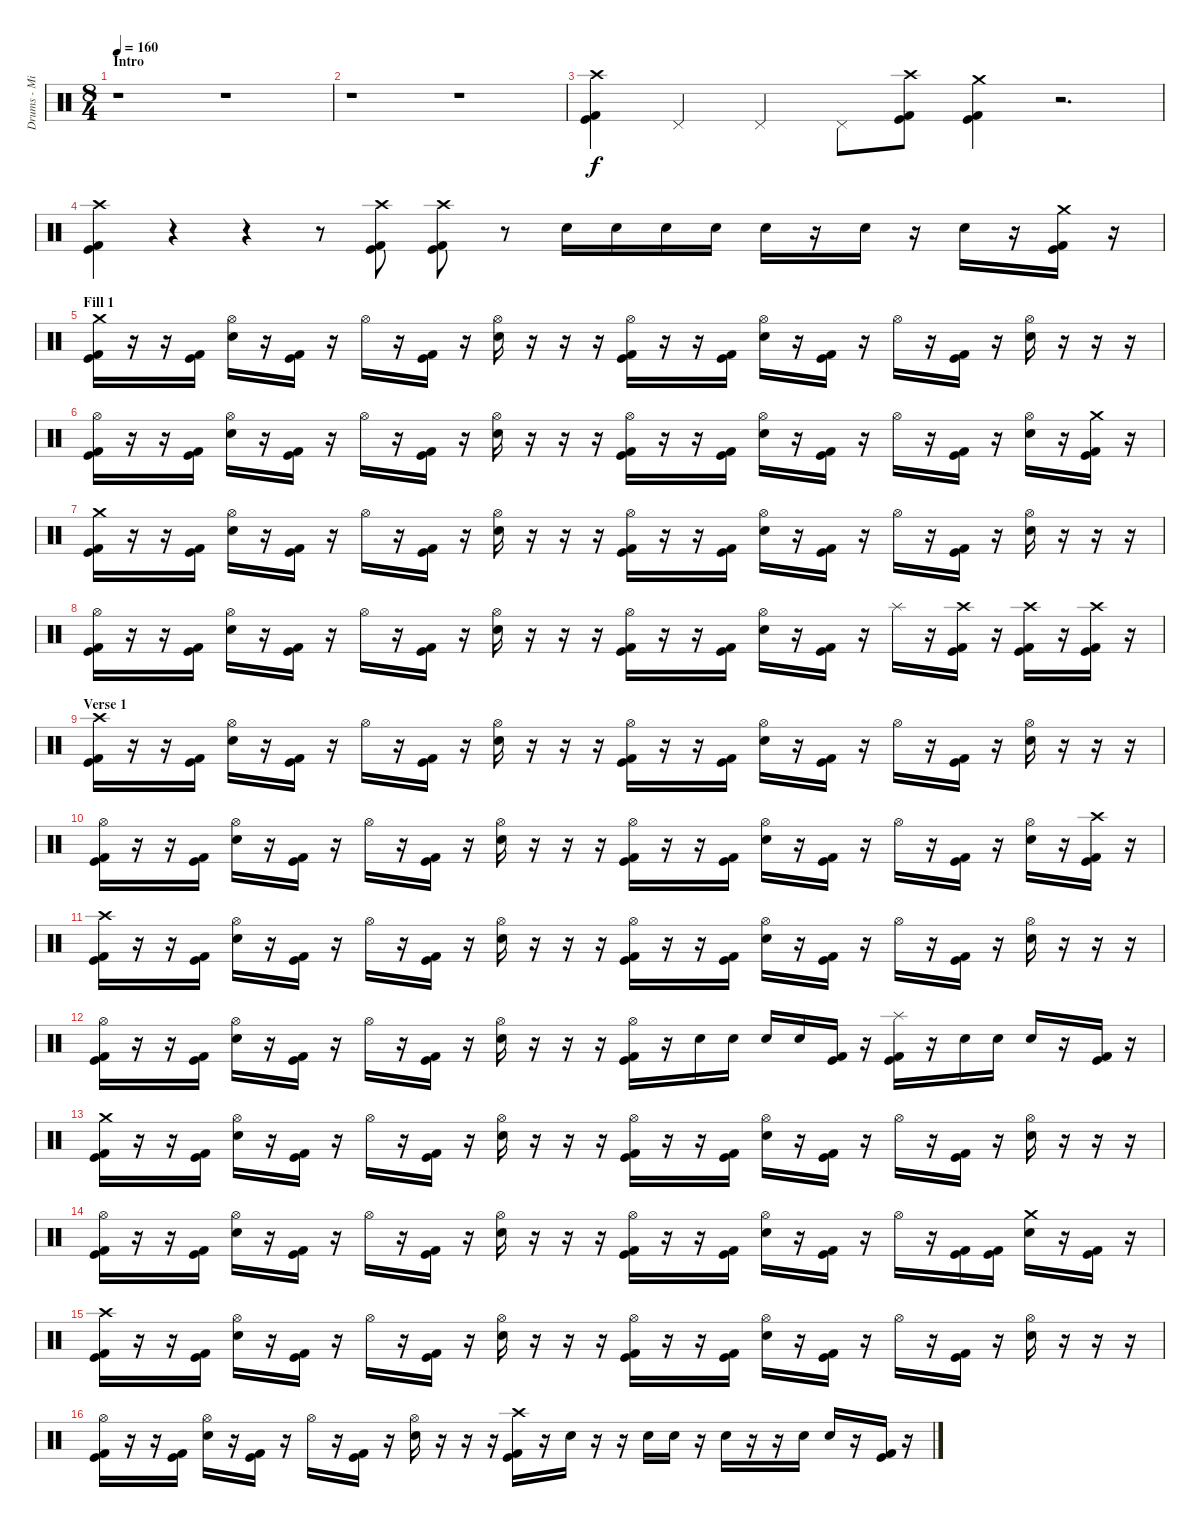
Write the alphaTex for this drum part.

\track ("Drums - Mikkey Dee" "Drums - Mi") {instrument percussion}
\staff {score}
\articulation defaults
\ts (8 4)
\section ("" "Intro")
\tempo 160
\clef neutral
\ks c
r.1{dy f} r.1 |
r.1 r.1 |
("Crash high (hit)" "Kick (hit) 2" "Kick (hit)").4 "Pedal Hi-Hat (hit)".4 "Pedal Hi-Hat (hit)".4 "Pedal Hi-Hat (hit)".8 ("Crash high (hit)" "Kick (hit)" "Kick (hit) 2").8 ("Crash medium (hit)" "Kick (hit) 2" "Kick (hit)").4 r.2{d} |
("Crash high (hit)" "Kick (hit) 2" "Kick (hit)").4 r.4 r.4 r.8 ("Crash high (hit)" "Kick (hit) 2" "Kick (hit)").8 ("Crash high (hit)" "Kick (hit) 2" "Kick (hit)").8 r.8 "Electric Snare (hit)".16 "Electric Snare (hit)".16 "Electric Snare (hit)".16 "Electric Snare (hit)".16 "Electric Snare (hit)".16 r.16 "Electric Snare (hit)".16 r.16 "Electric Snare (hit)".16 r.16 ("Crash medium (hit)" "Kick (hit) 2" "Kick (hit)").16 r.16 |
\section ("" "Fill 1")
("Crash medium (hit)" "Kick (hit) 2" "Kick (hit)").16 r.16 r.16 ("Kick (hit) 2" "Kick (hit)").16 ("Hi-Hat (open)" "Electric Snare (hit)").16 r.16 ("Kick (hit) 2" "Kick (hit)").16 r.16 "Hi-Hat (open)".16 r.16 ("Kick (hit) 2" "Kick (hit)").16 r.16 ("Hi-Hat (open)" "Electric Snare (hit)").16 r.16 r.16 r.16 ("Hi-Hat (open)" "Kick (hit) 2" "Kick (hit)").16 r.16 r.16 ("Kick (hit) 2" "Kick (hit)").16 ("Hi-Hat (open)" "Electric Snare (hit)").16 r.16 ("Kick (hit) 2" "Kick (hit)").16 r.16 "Hi-Hat (open)".16 r.16 ("Kick (hit) 2" "Kick (hit)").16 r.16 ("Hi-Hat (open)" "Electric Snare (hit)").16 r.16 r.16 r.16 |
("Hi-Hat (open)" "Kick (hit) 2" "Kick (hit)").16 r.16 r.16 ("Kick (hit) 2" "Kick (hit)").16 ("Hi-Hat (open)" "Electric Snare (hit)").16 r.16 ("Kick (hit) 2" "Kick (hit)").16 r.16 "Hi-Hat (open)".16 r.16 ("Kick (hit) 2" "Kick (hit)").16 r.16 ("Hi-Hat (open)" "Electric Snare (hit)").16 r.16 r.16 r.16 ("Hi-Hat (open)" "Kick (hit) 2" "Kick (hit)").16 r.16 r.16 ("Kick (hit) 2" "Kick (hit)").16 ("Hi-Hat (open)" "Electric Snare (hit)").16 r.16 ("Kick (hit) 2" "Kick (hit)").16 r.16 "Hi-Hat (open)".16 r.16 ("Kick (hit) 2" "Kick (hit)").16 r.16 ("Hi-Hat (open)" "Electric Snare (hit)").16 r.16 ("Crash medium (hit)" "Kick (hit) 2" "Kick (hit)").16 r.16 |
("Crash medium (hit)" "Kick (hit) 2" "Kick (hit)").16 r.16 r.16 ("Kick (hit) 2" "Kick (hit)").16 ("Hi-Hat (open)" "Electric Snare (hit)").16 r.16 ("Kick (hit) 2" "Kick (hit)").16 r.16 "Hi-Hat (open)".16 r.16 ("Kick (hit) 2" "Kick (hit)").16 r.16 ("Hi-Hat (open)" "Electric Snare (hit)").16 r.16 r.16 r.16 ("Hi-Hat (open)" "Kick (hit) 2" "Kick (hit)").16 r.16 r.16 ("Kick (hit) 2" "Kick (hit)").16 ("Hi-Hat (open)" "Electric Snare (hit)").16 r.16 ("Kick (hit) 2" "Kick (hit)").16 r.16 "Hi-Hat (open)".16 r.16 ("Kick (hit) 2" "Kick (hit)").16 r.16 ("Hi-Hat (open)" "Electric Snare (hit)").16 r.16 r.16 r.16 |
("Hi-Hat (open)" "Kick (hit) 2" "Kick (hit)").16 r.16 r.16 ("Kick (hit) 2" "Kick (hit)").16 ("Hi-Hat (open)" "Electric Snare (hit)").16 r.16 ("Kick (hit) 2" "Kick (hit)").16 r.16 "Hi-Hat (open)".16 r.16 ("Kick (hit) 2" "Kick (hit)").16 r.16 ("Hi-Hat (open)" "Electric Snare (hit)").16 r.16 r.16 r.16 ("Hi-Hat (open)" "Kick (hit) 2" "Kick (hit)").16 r.16 r.16 ("Kick (hit) 2" "Kick (hit)").16 ("Hi-Hat (open)" "Electric Snare (hit)").16 r.16 ("Kick (hit) 2" "Kick (hit)").16 r.16 "Splash (hit)".16 r.16 ("Crash high (hit)" "Kick (hit)" "Kick (hit) 2").16 r.16 ("Crash high (hit)" "Kick (hit)" "Kick (hit) 2").16 r.16 ("Crash high (hit)" "Kick (hit)" "Kick (hit) 2").16 r.16 |
\section ("" "Verse 1")
("Crash high (hit)" "Kick (hit) 2" "Kick (hit)").16 r.16 r.16 ("Kick (hit) 2" "Kick (hit)").16 ("Hi-Hat (open)" "Electric Snare (hit)").16 r.16 ("Kick (hit) 2" "Kick (hit)").16 r.16 "Hi-Hat (open)".16 r.16 ("Kick (hit) 2" "Kick (hit)").16 r.16 ("Hi-Hat (open)" "Electric Snare (hit)").16 r.16 r.16 r.16 ("Hi-Hat (open)" "Kick (hit) 2" "Kick (hit)").16 r.16 r.16 ("Kick (hit) 2" "Kick (hit)").16 ("Hi-Hat (open)" "Electric Snare (hit)").16 r.16 ("Kick (hit) 2" "Kick (hit)").16 r.16 "Hi-Hat (open)".16 r.16 ("Kick (hit) 2" "Kick (hit)").16 r.16 ("Hi-Hat (open)" "Electric Snare (hit)").16 r.16 r.16 r.16 |
("Hi-Hat (open)" "Kick (hit) 2" "Kick (hit)").16 r.16 r.16 ("Kick (hit) 2" "Kick (hit)").16 ("Hi-Hat (open)" "Electric Snare (hit)").16 r.16 ("Kick (hit) 2" "Kick (hit)").16 r.16 "Hi-Hat (open)".16 r.16 ("Kick (hit) 2" "Kick (hit)").16 r.16 ("Hi-Hat (open)" "Electric Snare (hit)").16 r.16 r.16 r.16 ("Hi-Hat (open)" "Kick (hit) 2" "Kick (hit)").16 r.16 r.16 ("Kick (hit) 2" "Kick (hit)").16 ("Hi-Hat (open)" "Electric Snare (hit)").16 r.16 ("Kick (hit) 2" "Kick (hit)").16 r.16 "Hi-Hat (open)".16 r.16 ("Kick (hit) 2" "Kick (hit)").16 r.16 ("Hi-Hat (open)" "Electric Snare (hit)").16 r.16 ("Crash high (hit)" "Kick (hit)" "Kick (hit) 2").16 r.16 |
("Crash high (hit)" "Kick (hit) 2" "Kick (hit)").16 r.16 r.16 ("Kick (hit) 2" "Kick (hit)").16 ("Hi-Hat (open)" "Electric Snare (hit)").16 r.16 ("Kick (hit) 2" "Kick (hit)").16 r.16 "Hi-Hat (open)".16 r.16 ("Kick (hit) 2" "Kick (hit)").16 r.16 ("Hi-Hat (open)" "Electric Snare (hit)").16 r.16 r.16 r.16 ("Hi-Hat (open)" "Kick (hit) 2" "Kick (hit)").16 r.16 r.16 ("Kick (hit) 2" "Kick (hit)").16 ("Hi-Hat (open)" "Electric Snare (hit)").16 r.16 ("Kick (hit) 2" "Kick (hit)").16 r.16 "Hi-Hat (open)".16 r.16 ("Kick (hit) 2" "Kick (hit)").16 r.16 ("Hi-Hat (open)" "Electric Snare (hit)").16 r.16 r.16 r.16 |
("Hi-Hat (open)" "Kick (hit) 2" "Kick (hit)").16 r.16 r.16 ("Kick (hit) 2" "Kick (hit)").16 ("Hi-Hat (open)" "Electric Snare (hit)").16 r.16 ("Kick (hit) 2" "Kick (hit)").16 r.16 "Hi-Hat (open)".16 r.16 ("Kick (hit) 2" "Kick (hit)").16 r.16 ("Hi-Hat (open)" "Electric Snare (hit)").16 r.16 r.16 r.16 ("Hi-Hat (open)" "Kick (hit) 2" "Kick (hit)").16 r.16 "Electric Snare (hit)".16 "Electric Snare (hit)".16 "Electric Snare (hit)".16 "Electric Snare (hit)".16 ("Kick (hit) 2" "Kick (hit)").16 r.16 ("Splash (hit)" "Kick (hit) 2" "Kick (hit)").16 r.16 "Electric Snare (hit)".16 "Electric Snare (hit)".16 "Electric Snare (hit)".16 r.16 ("Kick (hit) 2" "Kick (hit)").16 r.16 |
("Crash medium (hit)" "Kick (hit) 2" "Kick (hit)").16 r.16 r.16 ("Kick (hit) 2" "Kick (hit)").16 ("Hi-Hat (open)" "Electric Snare (hit)").16 r.16 ("Kick (hit) 2" "Kick (hit)").16 r.16 "Hi-Hat (open)".16 r.16 ("Kick (hit) 2" "Kick (hit)").16 r.16 ("Hi-Hat (open)" "Electric Snare (hit)").16 r.16 r.16 r.16 ("Hi-Hat (open)" "Kick (hit) 2" "Kick (hit)").16 r.16 r.16 ("Kick (hit) 2" "Kick (hit)").16 ("Hi-Hat (open)" "Electric Snare (hit)").16 r.16 ("Kick (hit) 2" "Kick (hit)").16 r.16 "Hi-Hat (open)".16 r.16 ("Kick (hit) 2" "Kick (hit)").16 r.16 ("Hi-Hat (open)" "Electric Snare (hit)").16 r.16 r.16 r.16 |
("Hi-Hat (open)" "Kick (hit) 2" "Kick (hit)").16 r.16 r.16 ("Kick (hit) 2" "Kick (hit)").16 ("Hi-Hat (open)" "Electric Snare (hit)").16 r.16 ("Kick (hit) 2" "Kick (hit)").16 r.16 "Hi-Hat (open)".16 r.16 ("Kick (hit) 2" "Kick (hit)").16 r.16 ("Hi-Hat (open)" "Electric Snare (hit)").16 r.16 r.16 r.16 ("Hi-Hat (open)" "Kick (hit) 2" "Kick (hit)").16 r.16 r.16 ("Kick (hit) 2" "Kick (hit)").16 ("Hi-Hat (open)" "Electric Snare (hit)").16 r.16 ("Kick (hit) 2" "Kick (hit)").16 r.16 "Hi-Hat (open)".16 r.16 ("Kick (hit) 2" "Kick (hit)").16 ("Kick (hit) 2" "Kick (hit)").16 ("Crash medium (hit)" "Electric Snare (hit)").16 r.16 ("Kick (hit) 2" "Kick (hit)").16 r.16 |
("Crash high (hit)" "Kick (hit) 2" "Kick (hit)").16 r.16 r.16 ("Kick (hit) 2" "Kick (hit)").16 ("Hi-Hat (open)" "Electric Snare (hit)").16 r.16 ("Kick (hit) 2" "Kick (hit)").16 r.16 "Hi-Hat (open)".16 r.16 ("Kick (hit) 2" "Kick (hit)").16 r.16 ("Hi-Hat (open)" "Electric Snare (hit)").16 r.16 r.16 r.16 ("Hi-Hat (open)" "Kick (hit) 2" "Kick (hit)").16 r.16 r.16 ("Kick (hit) 2" "Kick (hit)").16 ("Hi-Hat (open)" "Electric Snare (hit)").16 r.16 ("Kick (hit) 2" "Kick (hit)").16 r.16 "Hi-Hat (open)".16 r.16 ("Kick (hit) 2" "Kick (hit)").16 r.16 ("Hi-Hat (open)" "Electric Snare (hit)").16 r.16 r.16 r.16 |
("Hi-Hat (open)" "Kick (hit) 2" "Kick (hit)").16 r.16 r.16 ("Kick (hit) 2" "Kick (hit)").16 ("Hi-Hat (open)" "Electric Snare (hit)").16 r.16 ("Kick (hit) 2" "Kick (hit)").16 r.16 "Hi-Hat (open)".16 r.16 ("Kick (hit) 2" "Kick (hit)").16 r.16 ("Hi-Hat (open)" "Electric Snare (hit)").16 r.16 r.16 r.16 ("Crash high (hit)" "Kick (hit) 2" "Kick (hit)").16 r.16 "Electric Snare (hit)".16 r.16 r.16 "Electric Snare (hit)".16 "Electric Snare (hit)".16 r.16 "Electric Snare (hit)".16 r.16 r.16 "Electric Snare (hit)".16 "Electric Snare (hit)".16 r.16 ("Kick (hit) 2" "Kick (hit)").16 r.16
